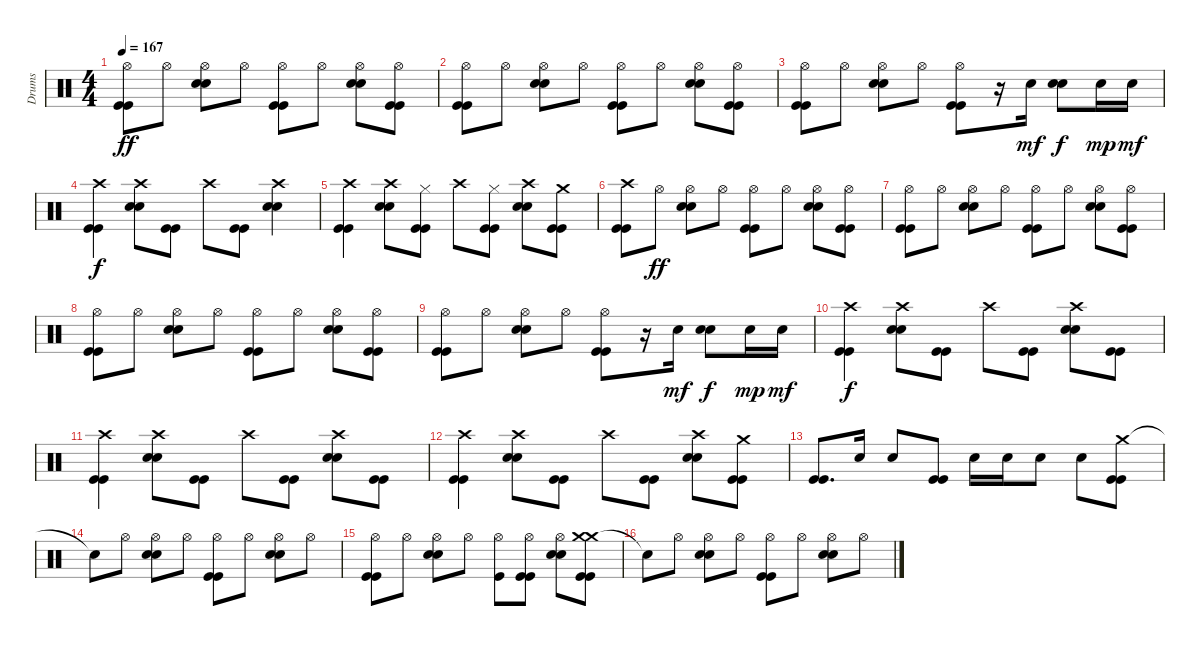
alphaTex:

\track ("Drums" "Drums") {instrument percussion}
\staff {score}
\articulation defaults
\ts (4 4)
\tempo 167
\clef neutral
\ks c
("Hi-Hat (open)" "Kick (hit)" "Kick (hit)").8{dy ff} "Hi-Hat (open)".8 ("Hi-Hat (open)" "Snare (hit) 2" "Snare (hit) 2").8 "Hi-Hat (open)".8 ("Hi-Hat (open)" "Kick (hit)" "Kick (hit)").8 "Hi-Hat (open)".8 ("Hi-Hat (open)" "Snare (hit) 2" "Snare (hit) 2").8 ("Hi-Hat (open)" "Kick (hit)" "Kick (hit)").8 |
("Hi-Hat (open)" "Kick (hit)" "Kick (hit)").8 "Hi-Hat (open)".8 ("Hi-Hat (open)" "Snare (hit) 2" "Snare (hit) 2").8 "Hi-Hat (open)".8 ("Hi-Hat (open)" "Kick (hit)" "Kick (hit)").8 "Hi-Hat (open)".8 ("Hi-Hat (open)" "Snare (hit) 2" "Snare (hit) 2").8 ("Hi-Hat (open)" "Kick (hit)" "Kick (hit)").8 |
("Hi-Hat (open)" "Kick (hit)" "Kick (hit)").8 "Hi-Hat (open)".8 ("Hi-Hat (open)" "Snare (hit) 2" "Snare (hit) 2").8 "Hi-Hat (open)".8 ("Hi-Hat (open)" "Kick (hit)" "Kick (hit)").8 r.16 "Snare (hit) 2".16{dy mf} ("Snare (hit) 2" "Snare (hit) 2").8{dy f} "Snare (hit) 2".16{dy mp} "Snare (hit) 2".16{dy mf} |
("Crash high (hit)" "Kick (hit)" "Kick (hit)").4{dy f} ("Crash high (hit)" "Snare (hit) 2" "Snare (hit) 2").8 ("Kick (hit)" "Kick (hit)").8 "Crash high (hit)".8 ("Kick (hit)" "Kick (hit)").8 ("Crash high (hit)" "Snare (hit) 2" "Snare (hit) 2").4 |
("Crash high (hit)" "Kick (hit)" "Kick (hit)").4 ("Crash high (hit)" "Snare (hit) 2" "Snare (hit) 2").8 ("Hi-Hat (closed)" "Kick (hit)" "Kick (hit)").8 "Crash high (hit)".8 ("Hi-Hat (closed)" "Kick (hit)" "Kick (hit)").8 ("Crash high (hit)" "Snare (hit) 2" "Snare (hit) 2").8 ("Crash medium (hit)" "Kick (hit)" "Kick (hit)").8 |
("Crash high (hit)" "Kick (hit)" "Kick (hit)").8 "Hi-Hat (open)".8{dy ff} ("Hi-Hat (open)" "Snare (hit) 2" "Snare (hit) 2").8 "Hi-Hat (open)".8 ("Hi-Hat (open)" "Kick (hit)" "Kick (hit)").8 "Hi-Hat (open)".8 ("Hi-Hat (open)" "Snare (hit) 2" "Snare (hit) 2").8 ("Hi-Hat (open)" "Kick (hit)" "Kick (hit)").8 |
("Hi-Hat (open)" "Kick (hit)" "Kick (hit)").8 "Hi-Hat (open)".8 ("Hi-Hat (open)" "Snare (hit) 2" "Snare (hit) 2").8 "Hi-Hat (open)".8 ("Hi-Hat (open)" "Kick (hit)" "Kick (hit)").8 "Hi-Hat (open)".8 ("Hi-Hat (open)" "Snare (hit) 2" "Snare (hit) 2").8 ("Hi-Hat (open)" "Kick (hit)" "Kick (hit)").8 |
("Hi-Hat (open)" "Kick (hit)" "Kick (hit)").8 "Hi-Hat (open)".8 ("Hi-Hat (open)" "Snare (hit) 2" "Snare (hit) 2").8 "Hi-Hat (open)".8 ("Hi-Hat (open)" "Kick (hit)" "Kick (hit)").8 "Hi-Hat (open)".8 ("Hi-Hat (open)" "Snare (hit) 2" "Snare (hit) 2").8 ("Hi-Hat (open)" "Kick (hit)" "Kick (hit)").8 |
("Hi-Hat (open)" "Kick (hit)" "Kick (hit)").8 "Hi-Hat (open)".8 ("Hi-Hat (open)" "Snare (hit) 2" "Snare (hit) 2").8 "Hi-Hat (open)".8 ("Hi-Hat (open)" "Kick (hit)" "Kick (hit)").8 r.16 "Snare (hit) 2".16{dy mf} ("Snare (hit) 2" "Snare (hit) 2").8{dy f} "Snare (hit) 2".16{dy mp} "Snare (hit) 2".16{dy mf} |
("Crash high (hit)" "Kick (hit)" "Kick (hit)").4{dy f} ("Crash high (hit)" "Snare (hit) 2" "Snare (hit) 2").8 ("Kick (hit)" "Kick (hit)").8 "Crash high (hit)".8 ("Kick (hit)" "Kick (hit)").8 ("Crash high (hit)" "Snare (hit) 2" "Snare (hit) 2").8 ("Kick (hit)" "Kick (hit)").8 |
("Crash high (hit)" "Kick (hit)" "Kick (hit)").4 ("Crash high (hit)" "Snare (hit) 2" "Snare (hit) 2").8 ("Kick (hit)" "Kick (hit)").8 "Crash high (hit)".8 ("Kick (hit)" "Kick (hit)").8 ("Crash high (hit)" "Snare (hit) 2" "Snare (hit) 2").8 ("Kick (hit)" "Kick (hit)").8 |
("Crash high (hit)" "Kick (hit)" "Kick (hit)").4 ("Crash high (hit)" "Snare (hit) 2" "Snare (hit) 2").8 ("Kick (hit)" "Kick (hit)").8 "Crash high (hit)".8 ("Kick (hit)" "Kick (hit)").8 ("Crash high (hit)" "Snare (hit) 2" "Snare (hit) 2").8 ("Crash medium (hit)" "Kick (hit)" "Kick (hit)").8 |
("Kick (hit)" "Kick (hit)").8{d} "Snare (hit) 2".16 "Snare (hit) 2".8 ("Kick (hit)" "Kick (hit)").8 "Snare (hit) 2".16 "Snare (hit) 2".16 "Snare (hit) 2".8 "Snare (hit) 2".8 ("Crash medium (hit)" "Kick (hit)" "Kick (hit)").8 |
"Snare (hit)"{t}.8 "Hi-Hat (open)".8 ("Hi-Hat (open)" "Snare (hit) 2" "Snare (hit) 2").8 "Hi-Hat (open)".8 ("Hi-Hat (open)" "Kick (hit)" "Kick (hit)").8 "Hi-Hat (open)".8 ("Hi-Hat (open)" "Snare (hit) 2" "Snare (hit) 2").8 "Hi-Hat (open)".8 |
("Hi-Hat (open)" "Kick (hit)" "Kick (hit)").8 "Hi-Hat (open)".8 ("Hi-Hat (open)" "Snare (hit) 2" "Snare (hit) 2").8 "Hi-Hat (open)".8 ("Hi-Hat (open)" "Kick (hit)").8 ("Hi-Hat (open)" "Kick (hit)" "Kick (hit)").8 ("Hi-Hat (open)" "Snare (hit) 2" "Snare (hit) 2").8 ("Crash medium (hit)" "Crash medium (hit)" "Kick (hit)" "Kick (hit)").8 |
"Snare (hit)"{t}.8 "Hi-Hat (open)".8 ("Hi-Hat (open)" "Snare (hit) 2" "Snare (hit) 2").8 "Hi-Hat (open)".8 ("Hi-Hat (open)" "Kick (hit)" "Kick (hit)").8 "Hi-Hat (open)".8 ("Hi-Hat (open)" "Snare (hit) 2" "Snare (hit) 2").8 "Hi-Hat (open)".8
